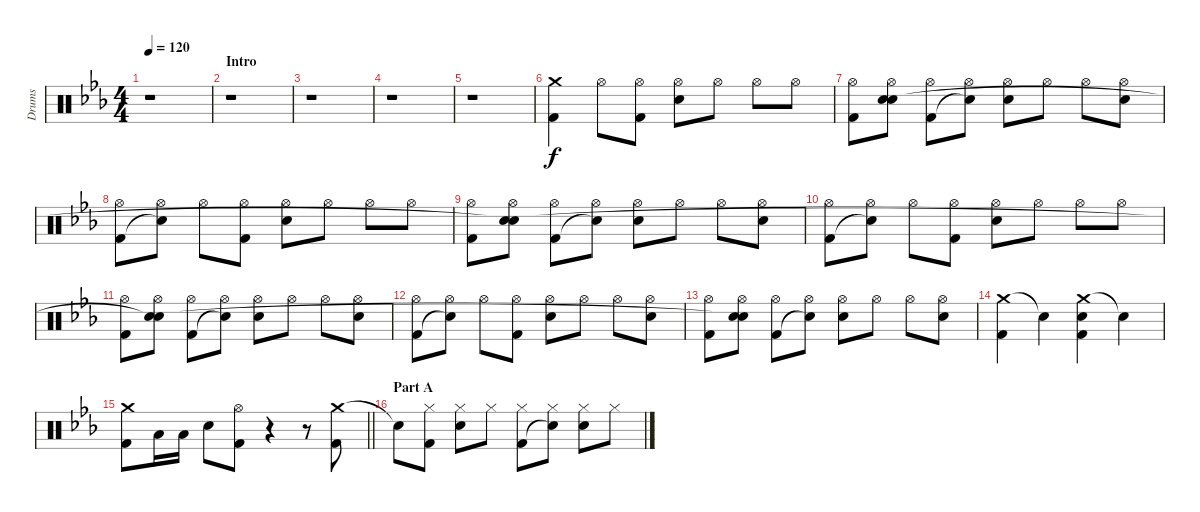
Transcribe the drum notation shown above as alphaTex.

\track ("Drums" "Drums") {instrument percussion}
\staff {score}
\articulation defaults
\ts (4 4)
\tempo 120
\tempo 180
\tempo 120
\clef neutral
\ks eb
r.1{dy f} |
\section ("" "Intro")
r.1 |
r.1 |
r.1 |
r.1 |
("Crash medium (hit)" "Kick (hit) 2").4 "Hi-Hat (open)".8 ("Hi-Hat (open)" "Kick (hit) 2").8 ("Hi-Hat (open)" "Electric Snare (hit)").8 "Hi-Hat (open)".8 "Hi-Hat (open)".8 "Hi-Hat (open)".8 |
("Hi-Hat (open)" "Kick (hit) 2").8 ("Hi-Hat (open)" "Electric Snare (hit)" "Snare (hit)").8 ("Hi-Hat (open)" "Kick (hit) 2").8 ("Hi-Hat (open)" "Snare (hit)"{t}).8 ("Hi-Hat (open)" "Electric Snare (hit)").8 "Hi-Hat (open)".8 "Hi-Hat (open)".8 ("Hi-Hat (open)" "Electric Snare (hit)").8 |
("Hi-Hat (open)" "Kick (hit) 2").8 ("Hi-Hat (open)" "Snare (hit)"{t}).8 "Hi-Hat (open)".8 ("Hi-Hat (open)" "Kick (hit) 2").8 ("Hi-Hat (open)" "Electric Snare (hit)").8 "Hi-Hat (open)".8 "Hi-Hat (open)".8 "Hi-Hat (open)".8 |
("Hi-Hat (open)" "Kick (hit) 2").8 ("Hi-Hat (open)" "Electric Snare (hit)" "Snare (hit)"{t}).8 ("Hi-Hat (open)" "Kick (hit) 2").8 ("Hi-Hat (open)" "Snare (hit)"{t}).8 ("Hi-Hat (open)" "Electric Snare (hit)").8 "Hi-Hat (open)".8 "Hi-Hat (open)".8 ("Hi-Hat (open)" "Electric Snare (hit)").8 |
("Hi-Hat (open)" "Kick (hit) 2").8 ("Hi-Hat (open)" "Snare (hit)"{t}).8 "Hi-Hat (open)".8 ("Hi-Hat (open)" "Kick (hit) 2").8 ("Hi-Hat (open)" "Electric Snare (hit)").8 "Hi-Hat (open)".8 "Hi-Hat (open)".8 "Hi-Hat (open)".8 |
("Hi-Hat (open)" "Kick (hit) 2").8 ("Hi-Hat (open)" "Electric Snare (hit)" "Snare (hit)"{t}).8 ("Hi-Hat (open)" "Kick (hit) 2").8 ("Hi-Hat (open)" "Snare (hit)"{t}).8 ("Hi-Hat (open)" "Electric Snare (hit)").8 "Hi-Hat (open)".8 "Hi-Hat (open)".8 ("Hi-Hat (open)" "Electric Snare (hit)").8 |
("Hi-Hat (open)" "Kick (hit) 2").8 ("Hi-Hat (open)" "Snare (hit)"{t}).8 "Hi-Hat (open)".8 ("Hi-Hat (open)" "Kick (hit) 2").8 ("Hi-Hat (open)" "Electric Snare (hit)").8 "Hi-Hat (open)".8 "Hi-Hat (open)".8 ("Hi-Hat (open)" "Electric Snare (hit)").8 |
("Hi-Hat (open)" "Kick (hit) 2").8 ("Hi-Hat (open)" "Electric Snare (hit)" "Snare (hit)"{t}).8 ("Hi-Hat (open)" "Kick (hit) 2").8 ("Hi-Hat (open)" "Snare (hit)"{t}).8 ("Hi-Hat (open)" "Electric Snare (hit)").8 "Hi-Hat (open)".8 "Hi-Hat (open)".8 ("Hi-Hat (open)" "Electric Snare (hit)").8 |
("Crash medium (hit)" "Kick (hit) 2").4 "Snare (hit)"{t}.4 ("Crash medium (hit)" "Electric Snare (hit)" "Kick (hit) 2").4 "Snare (hit)"{t}.4 |
\barLineRight lightlight
("Crash medium (hit)" "Kick (hit) 2").8 "Low Tom (hit)".16 "Low Floor Tom (hit)".16 "Electric Snare (hit)".8 ("Hi-Hat (open)" "Kick (hit) 2").8 r.4 r.8 ("Crash medium (hit)" "Kick (hit) 2").8 |
\section ("" "Part A")
"Snare (hit)"{t}.8 ("Hi-Hat (closed)" "Kick (hit) 2").8 ("Hi-Hat (closed)" "Electric Snare (hit)").8 "Hi-Hat (closed)".8 ("Hi-Hat (closed)" "Kick (hit) 2").8 ("Hi-Hat (closed)" "Snare (hit)"{t}).8 ("Hi-Hat (closed)" "Electric Snare (hit)").8 "Hi-Hat (closed)".8
